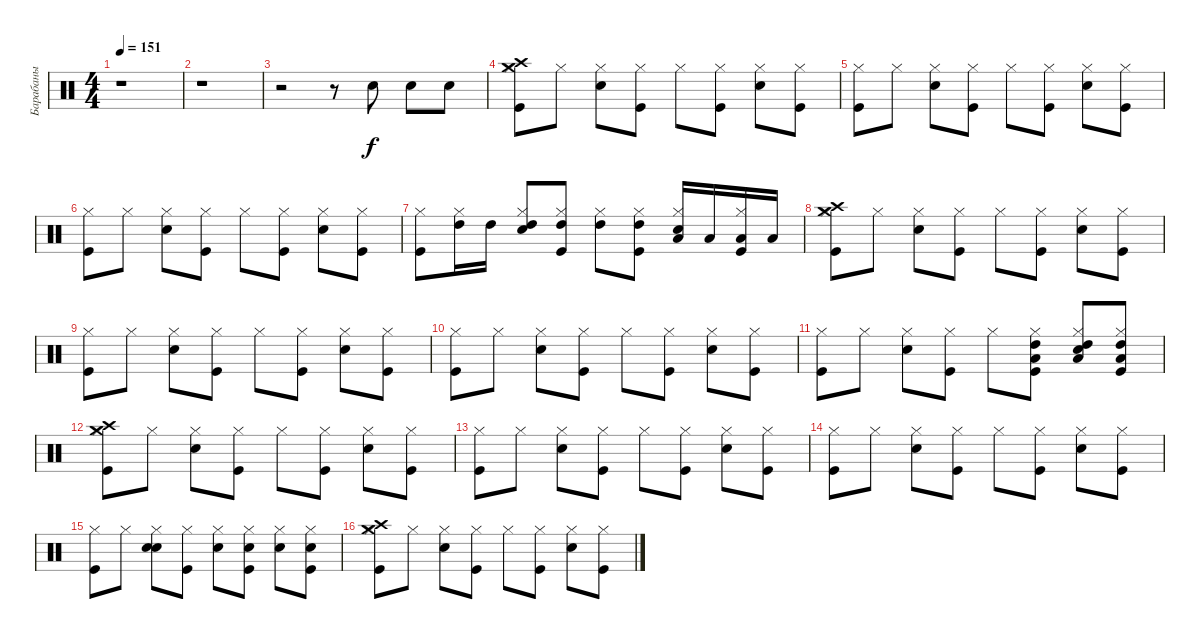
\track ("Барабаны" "Барабаны") {instrument percussion}
\staff {score}
\articulation defaults
\ts (4 4)
\tempo 151
\clef neutral
\ks c
r.1{dy f} |
r.1 |
r.2 r.8 "Snare (hit) 2".8 "Snare (hit) 2".8 "Snare (hit) 2".8 |
("Kick (hit)" "Hi-Hat (closed)" "Crash high (hit)" "Crash medium (hit)").8 "Hi-Hat (closed)".8 ("Snare (hit) 2" "Hi-Hat (closed)").8 ("Kick (hit)" "Hi-Hat (closed)").8 "Hi-Hat (closed)".8 ("Kick (hit)" "Hi-Hat (closed)").8 ("Snare (hit) 2" "Hi-Hat (closed)").8 ("Kick (hit)" "Hi-Hat (closed)").8 |
("Kick (hit)" "Hi-Hat (closed)").8 "Hi-Hat (closed)".8 ("Snare (hit) 2" "Hi-Hat (closed)").8 ("Kick (hit)" "Hi-Hat (closed)").8 "Hi-Hat (closed)".8 ("Kick (hit)" "Hi-Hat (closed)").8 ("Snare (hit) 2" "Hi-Hat (closed)").8 ("Kick (hit)" "Hi-Hat (closed)").8 |
("Kick (hit)" "Hi-Hat (closed)").8 "Hi-Hat (closed)".8 ("Snare (hit) 2" "Hi-Hat (closed)").8 ("Kick (hit)" "Hi-Hat (closed)").8 "Hi-Hat (closed)".8 ("Kick (hit)" "Hi-Hat (closed)").8 ("Snare (hit) 2" "Hi-Hat (closed)").8 ("Kick (hit)" "Hi-Hat (closed)").8 |
("Kick (hit)" "Hi-Hat (closed)").8 ("Hi-Hat (closed)" "High Tom (hit)").16 "High Tom (hit)".16 ("Snare (hit) 2" "Hi-Hat (closed)" "High Tom (hit)").8 ("Kick (hit)" "Hi-Hat (closed)" "High Tom (hit)").8 ("Hi-Hat (closed)" "High Tom (hit)").8 ("Kick (hit)" "Hi-Hat (closed)" "High Tom (hit)").8 ("Snare (hit) 2" "Hi-Hat (closed)" "Low Tom (hit)").16 "Low Tom (hit)".16 ("Kick (hit)" "Hi-Hat (closed)" "Low Tom (hit)").16 "Low Tom (hit)".16 |
("Kick (hit)" "Hi-Hat (closed)" "Crash high (hit)" "Crash medium (hit)").8 "Hi-Hat (closed)".8 ("Snare (hit) 2" "Hi-Hat (closed)").8 ("Kick (hit)" "Hi-Hat (closed)").8 "Hi-Hat (closed)".8 ("Kick (hit)" "Hi-Hat (closed)").8 ("Snare (hit) 2" "Hi-Hat (closed)").8 ("Kick (hit)" "Hi-Hat (closed)").8 |
("Kick (hit)" "Hi-Hat (closed)").8 "Hi-Hat (closed)".8 ("Snare (hit) 2" "Hi-Hat (closed)").8 ("Kick (hit)" "Hi-Hat (closed)").8 "Hi-Hat (closed)".8 ("Kick (hit)" "Hi-Hat (closed)").8 ("Snare (hit) 2" "Hi-Hat (closed)").8 ("Kick (hit)" "Hi-Hat (closed)").8 |
("Kick (hit)" "Hi-Hat (closed)").8 "Hi-Hat (closed)".8 ("Snare (hit) 2" "Hi-Hat (closed)").8 ("Kick (hit)" "Hi-Hat (closed)").8 "Hi-Hat (closed)".8 ("Kick (hit)" "Hi-Hat (closed)").8 ("Snare (hit) 2" "Hi-Hat (closed)").8 ("Kick (hit)" "Hi-Hat (closed)").8 |
("Kick (hit)" "Hi-Hat (closed)").8 "Hi-Hat (closed)".8 ("Snare (hit) 2" "Hi-Hat (closed)").8 ("Kick (hit)" "Hi-Hat (closed)").8 "Hi-Hat (closed)".8 ("Kick (hit)" "Hi-Hat (closed)" "Low Floor Tom (hit)" "High Tom (hit)").8 ("Snare (hit) 2" "Hi-Hat (closed)" "Low Floor Tom (hit)" "High Tom (hit)").8 ("Kick (hit)" "Hi-Hat (closed)" "Low Floor Tom (hit)" "High Tom (hit)").8 |
("Kick (hit)" "Hi-Hat (closed)" "Crash high (hit)" "Crash medium (hit)").8 "Hi-Hat (closed)".8 ("Snare (hit) 2" "Hi-Hat (closed)").8 ("Kick (hit)" "Hi-Hat (closed)").8 "Hi-Hat (closed)".8 ("Kick (hit)" "Hi-Hat (closed)").8 ("Snare (hit) 2" "Hi-Hat (closed)").8 ("Kick (hit)" "Hi-Hat (closed)").8 |
("Kick (hit)" "Hi-Hat (closed)").8 "Hi-Hat (closed)".8 ("Snare (hit) 2" "Hi-Hat (closed)").8 ("Kick (hit)" "Hi-Hat (closed)").8 "Hi-Hat (closed)".8 ("Kick (hit)" "Hi-Hat (closed)").8 ("Snare (hit) 2" "Hi-Hat (closed)").8 ("Kick (hit)" "Hi-Hat (closed)").8 |
("Kick (hit)" "Hi-Hat (closed)").8 "Hi-Hat (closed)".8 ("Snare (hit) 2" "Hi-Hat (closed)").8 ("Kick (hit)" "Hi-Hat (closed)").8 "Hi-Hat (closed)".8 ("Kick (hit)" "Hi-Hat (closed)").8 ("Snare (hit) 2" "Hi-Hat (closed)").8 ("Kick (hit)" "Hi-Hat (closed)").8 |
("Kick (hit)" "Hi-Hat (closed)").8 "Hi-Hat (closed)".8 ("Snare (hit) 2" "Hi-Hat (closed)" "Hand Clap (hit)").8 ("Kick (hit)" "Hi-Hat (closed)").8 ("Hi-Hat (closed)" "Hand Clap (hit)").8 ("Kick (hit)" "Hi-Hat (closed)" "Hand Clap (hit)").8 ("Snare (hit) 2" "Hi-Hat (closed)").8 ("Kick (hit)" "Hi-Hat (closed)" "Hand Clap (hit)").8 |
("Kick (hit)" "Hi-Hat (closed)" "Crash high (hit)" "Crash medium (hit)").8 "Hi-Hat (closed)".8 ("Snare (hit) 2" "Hi-Hat (closed)").8 ("Kick (hit)" "Hi-Hat (closed)").8 "Hi-Hat (closed)".8 ("Kick (hit)" "Hi-Hat (closed)").8 ("Snare (hit) 2" "Hi-Hat (closed)").8 ("Kick (hit)" "Hi-Hat (closed)").8
